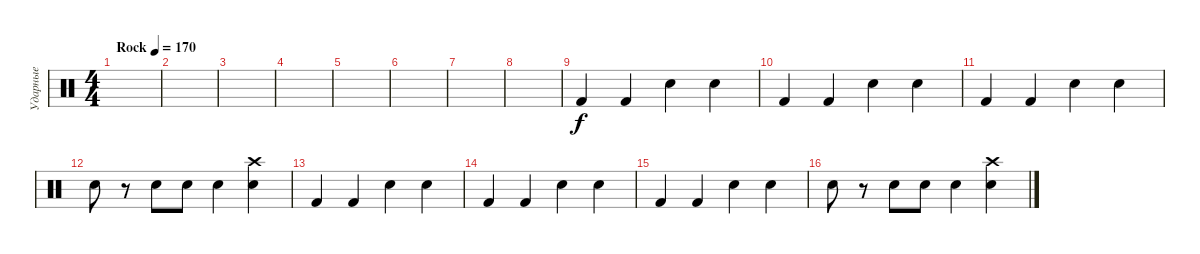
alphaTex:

\track ("Ударные" "Ударные") {instrument percussion}
\staff {score}
\articulation defaults
\ts (4 4)
\tempo (170 "Rock")
\clef neutral
\ks c
|
|
|
|
|
|
|
|
"Kick (hit) 2".4 "Kick (hit) 2".4 "Electric Snare (hit)".4 "Electric Snare (hit)".4 |
"Kick (hit) 2".4 "Kick (hit) 2".4 "Electric Snare (hit)".4 "Electric Snare (hit)".4 |
"Kick (hit) 2".4 "Kick (hit) 2".4 "Electric Snare (hit)".4 "Electric Snare (hit)".4 |
"Snare (hit) 2".8 r.8 "Electric Snare (hit)".8 "Electric Snare (hit)".8 "Electric Snare (hit)".4 ("Snare (hit) 2" "Crash high (hit)").4 |
"Kick (hit) 2".4 "Kick (hit) 2".4 "Electric Snare (hit)".4 "Electric Snare (hit)".4 |
"Kick (hit) 2".4 "Kick (hit) 2".4 "Electric Snare (hit)".4 "Electric Snare (hit)".4 |
"Kick (hit) 2".4 "Kick (hit) 2".4 "Electric Snare (hit)".4 "Electric Snare (hit)".4 |
"Snare (hit) 2".8 r.8 "Electric Snare (hit)".8 "Electric Snare (hit)".8 "Electric Snare (hit)".4 ("Snare (hit) 2" "Crash high (hit)").4
